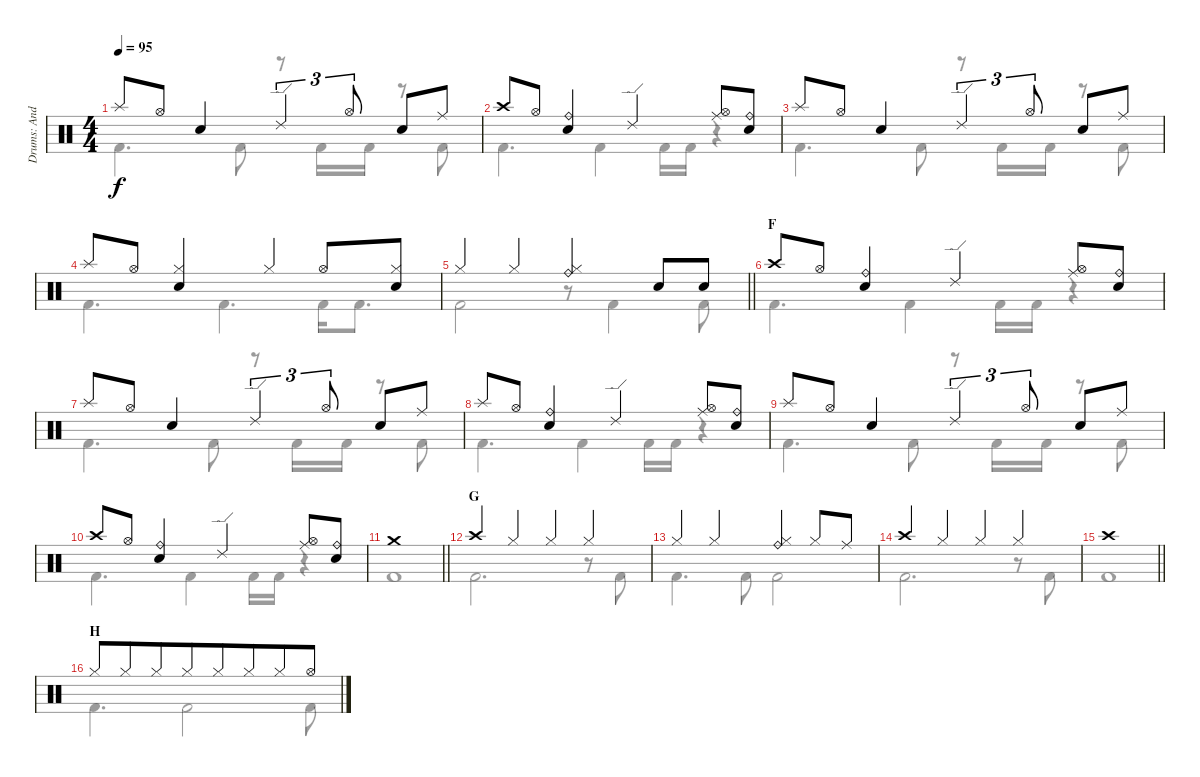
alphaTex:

\track ("Drums: Andy" "Drums: And") {instrument percussion}
\staff {score}
\articulation defaults
\voice
\ts (4 4)
\tempo 95
\clef neutral
\ks c "Splash (hit)".8{dy f} "Hi-Hat (open)".8 "Electric Snare (hit)".4 "Ride (edge) 2".4{tu (3 2)} "Hi-Hat (open)".8{tu (3 2)} "Electric Snare (hit)".8 "Ride (middle)".8
|
"Crash high (hit)".8 "Hi-Hat (open)".8 ("Ride (bell)" "Electric Snare (hit)").4 "Ride (edge) 2".4 ("Ride (middle)" "Hi-Hat (open)").8 ("Ride (bell)" "Electric Snare (hit)").8 |
"Splash (hit)".8 "Hi-Hat (open)".8 "Electric Snare (hit)".4 "Ride (edge) 2".4{tu (3 2)} "Hi-Hat (open)".8{tu (3 2)} "Electric Snare (hit)".8 "Ride (middle)".8 |
"Splash (hit)".8 "Hi-Hat (open)".8 ("Hi-Hat (closed)" "Electric Snare (hit)").4 "Hi-Hat (closed)".4 "Hi-Hat (open)".8 ("Hi-Hat (closed)" "Electric Snare (hit)").8 |
\barLineRight lightlight "Hi-Hat (closed)".4 "Hi-Hat (closed)".4
("Ride (bell)" "Hi-Hat (closed)").4 "Snare (hit) 2".8 "Snare (hit) 2".8 |
\section ("" "F")
"Crash high (hit)".8 "Hi-Hat (open)".8 ("Ride (bell)" "Electric Snare (hit)").4 "Ride (edge) 2".4 ("Ride (middle)" "Hi-Hat (open)").8 ("Ride (bell)" "Electric Snare (hit)").8 |
"Splash (hit)".8 "Hi-Hat (open)".8 "Electric Snare (hit)".4 "Ride (edge) 2".4{tu (3 2)} "Hi-Hat (open)".8{tu (3 2)} "Electric Snare (hit)".8 "Ride (middle)".8 |
"Splash (hit)".8 "Hi-Hat (open)".8 ("Ride (bell)" "Electric Snare (hit)").4 "Ride (edge) 2".4 ("Ride (middle)" "Hi-Hat (open)").8 ("Ride (bell)" "Electric Snare (hit)").8 |
"Splash (hit)".8 "Hi-Hat (open)".8 "Electric Snare (hit)".4 "Ride (edge) 2".4{tu (3 2)} "Hi-Hat (open)".8{tu (3 2)} "Electric Snare (hit)".8 "Ride (middle)".8 |
"Crash high (hit)".8 "Hi-Hat (open)".8 ("Ride (bell)" "Electric Snare (hit)").4 "Ride (edge) 2".4 ("Ride (middle)" "Hi-Hat (open)").8 ("Ride (bell)" "Electric Snare (hit)").8 |
\barLineRight lightlight "Crash medium (hit)".1
|
\section ("" "G")
"Crash high (hit)".4 "Hi-Hat (closed)".4 "Hi-Hat (closed)".4 "Hi-Hat (closed)".4 |
"Hi-Hat (closed)".4 "Hi-Hat (closed)".4 ("Ride (bell)" "Hi-Hat (closed)").4 "Hi-Hat (closed)".8 "Ride (middle)".8 |
"Crash high (hit)".4 "Hi-Hat (closed)".4 "Hi-Hat (closed)".4 "Hi-Hat (closed)".4 |
\barLineRight lightlight "Crash high (hit)".1
|
\section ("" "H")
"Hi-Hat (closed)".8{beam merge} "Hi-Hat (closed)".8{beam merge} "Hi-Hat (closed)".8 "Hi-Hat (closed)".8{beam merge} "Hi-Hat (closed)".8 "Hi-Hat (closed)".8{beam merge} "Hi-Hat (closed)".8 "Hi-Hat (open)".8
\voice
\clef neutral
\ottava regular
\simile none
\ks c "Kick (hit) 2".4{d dy f} "Kick (hit) 2".8
r.8 "Kick (hit) 2".16 "Kick (hit) 2".16 r.8 "Kick (hit) 2".8 |
"Kick (hit) 2".4{d} "Kick (hit) 2".4 "Kick (hit) 2".16 "Kick (hit) 2".16 r.4 |
"Kick (hit) 2".4{d} "Kick (hit) 2".8 r.8 "Kick (hit) 2".16 "Kick (hit) 2".16 r.8 "Kick (hit) 2".8 |
"Kick (hit) 2".4{d} "Kick (hit) 2".4{d} "Kick (hit) 2".16 "Kick (hit) 2".8{d} |
\barLineRight lightlight "Kick (hit) 2".2
r.8 "Kick (hit) 2".4 "Kick (hit) 2".8 |
"Kick (hit) 2".4{d} "Kick (hit) 2".4 "Kick (hit) 2".16 "Kick (hit) 2".16 r.4 |
"Kick (hit) 2".4{d} "Kick (hit) 2".8 r.8 "Kick (hit) 2".16 "Kick (hit) 2".16 r.8 "Kick (hit) 2".8 |
"Kick (hit) 2".4{d} "Kick (hit) 2".4 "Kick (hit) 2".16 "Kick (hit) 2".16 r.4 |
"Kick (hit) 2".4{d} "Kick (hit) 2".8 r.8 "Kick (hit) 2".16 "Kick (hit) 2".16 r.8 "Kick (hit) 2".8 |
"Kick (hit) 2".4{d} "Kick (hit) 2".4 "Kick (hit) 2".16 "Kick (hit) 2".16 r.4 |
\barLineRight lightlight "Kick (hit) 2".1
|
"Kick (hit) 2".2{d} r.8 "Kick (hit) 2".8 |
"Kick (hit) 2".4{d} "Kick (hit) 2".8 "Kick (hit) 2".2 |
"Kick (hit) 2".2{d} r.8 "Kick (hit) 2".8 |
\barLineRight lightlight "Kick (hit) 2".1
|
"Kick (hit) 2".4{d} "Kick (hit) 2".2 "Kick (hit) 2".8
